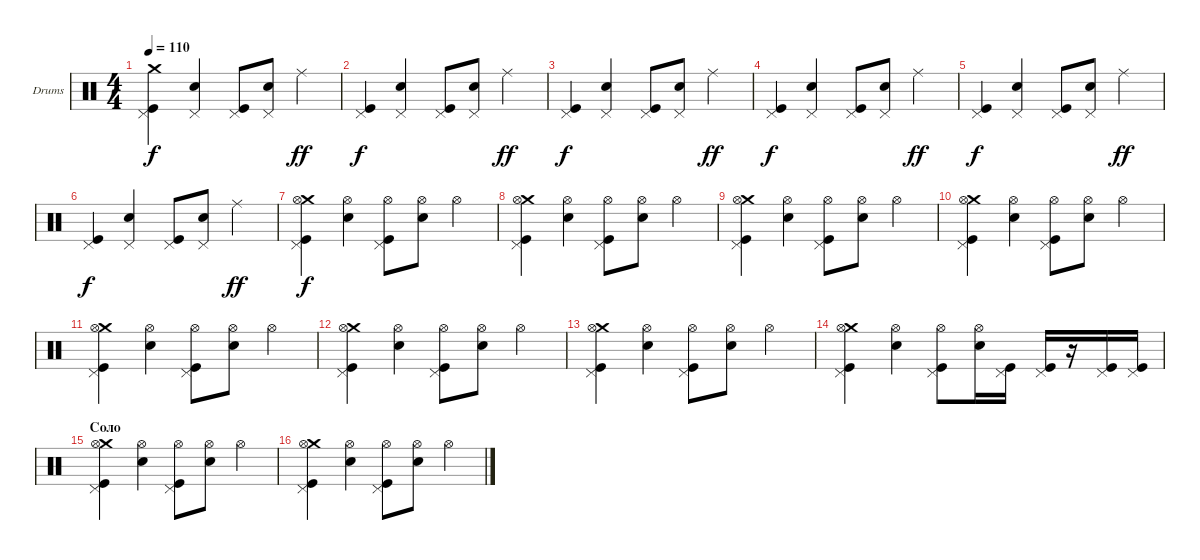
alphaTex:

\defaultSystemsLayout 4
\bracketExtendMode groupsimilarinstruments
\firstSystemTrackNameOrientation horizontal
\otherSystemsTrackNameOrientation horizontal
\track ("Е. Кулаков" "Drums") {instrument percussion}
\staff {score}
\articulation defaults
\ts (4 4)
\tempo 110
\clef neutral
\ks c
("Crash medium (hit)" "Pedal Hi-Hat (hit)" "Kick (hit)").4{dy f} ("Snare (hit) 2" "Pedal Hi-Hat (hit)").4 ("Pedal Hi-Hat (hit)" "Kick (hit)").8 ("Snare (hit) 2" "Pedal Hi-Hat (hit)").8 "Ride (middle)".4{dy ff} |
("Pedal Hi-Hat (hit)" "Kick (hit)").4{dy f} ("Snare (hit) 2" "Pedal Hi-Hat (hit)").4 ("Pedal Hi-Hat (hit)" "Kick (hit)").8 ("Snare (hit) 2" "Pedal Hi-Hat (hit)").8 "Ride (middle)".4{dy ff} |
("Pedal Hi-Hat (hit)" "Kick (hit)").4{dy f} ("Snare (hit) 2" "Pedal Hi-Hat (hit)").4 ("Pedal Hi-Hat (hit)" "Kick (hit)").8 ("Snare (hit) 2" "Pedal Hi-Hat (hit)").8 "Ride (middle)".4{dy ff} |
("Pedal Hi-Hat (hit)" "Kick (hit)").4{dy f} ("Snare (hit) 2" "Pedal Hi-Hat (hit)").4 ("Pedal Hi-Hat (hit)" "Kick (hit)").8 ("Snare (hit) 2" "Pedal Hi-Hat (hit)").8 "Ride (middle)".4{dy ff} |
("Pedal Hi-Hat (hit)" "Kick (hit)").4{dy f} ("Snare (hit) 2" "Pedal Hi-Hat (hit)").4 ("Pedal Hi-Hat (hit)" "Kick (hit)").8 ("Snare (hit) 2" "Pedal Hi-Hat (hit)").8 "Ride (middle)".4{dy ff} |
("Pedal Hi-Hat (hit)" "Kick (hit)").4{dy f} ("Snare (hit) 2" "Pedal Hi-Hat (hit)").4 ("Pedal Hi-Hat (hit)" "Kick (hit)").8 ("Snare (hit) 2" "Pedal Hi-Hat (hit)").8 "Ride (middle)".4{dy ff} |
("Crash medium (hit)" "Pedal Hi-Hat (hit)" "Kick (hit)" "Hi-Hat (open)").4{dy f} ("Snare (hit) 2" "Hi-Hat (open)").4 ("Pedal Hi-Hat (hit)" "Kick (hit)" "Hi-Hat (open)").8 ("Snare (hit) 2" "Hi-Hat (open)").8 "Hi-Hat (open)".4 |
("Crash medium (hit)" "Pedal Hi-Hat (hit)" "Kick (hit)" "Hi-Hat (open)").4 ("Snare (hit) 2" "Hi-Hat (open)").4 ("Pedal Hi-Hat (hit)" "Kick (hit)" "Hi-Hat (open)").8 ("Snare (hit) 2" "Hi-Hat (open)").8 "Hi-Hat (open)".4 |
("Crash medium (hit)" "Pedal Hi-Hat (hit)" "Kick (hit)" "Hi-Hat (open)").4 ("Snare (hit) 2" "Hi-Hat (open)").4 ("Pedal Hi-Hat (hit)" "Kick (hit)" "Hi-Hat (open)").8 ("Snare (hit) 2" "Hi-Hat (open)").8 "Hi-Hat (open)".4 |
("Crash medium (hit)" "Pedal Hi-Hat (hit)" "Kick (hit)" "Hi-Hat (open)").4 ("Snare (hit) 2" "Hi-Hat (open)").4 ("Pedal Hi-Hat (hit)" "Kick (hit)" "Hi-Hat (open)").8 ("Snare (hit) 2" "Hi-Hat (open)").8 "Hi-Hat (open)".4 |
("Crash medium (hit)" "Pedal Hi-Hat (hit)" "Kick (hit)" "Hi-Hat (open)").4 ("Snare (hit) 2" "Hi-Hat (open)").4 ("Pedal Hi-Hat (hit)" "Kick (hit)" "Hi-Hat (open)").8 ("Snare (hit) 2" "Hi-Hat (open)").8 "Hi-Hat (open)".4 |
("Crash medium (hit)" "Pedal Hi-Hat (hit)" "Kick (hit)" "Hi-Hat (open)").4 ("Snare (hit) 2" "Hi-Hat (open)").4 ("Pedal Hi-Hat (hit)" "Kick (hit)" "Hi-Hat (open)").8 ("Snare (hit) 2" "Hi-Hat (open)").8 "Hi-Hat (open)".4 |
("Crash medium (hit)" "Pedal Hi-Hat (hit)" "Kick (hit)" "Hi-Hat (open)").4 ("Snare (hit) 2" "Hi-Hat (open)").4 ("Pedal Hi-Hat (hit)" "Kick (hit)" "Hi-Hat (open)").8 ("Snare (hit) 2" "Hi-Hat (open)").8 "Hi-Hat (open)".4 |
("Crash medium (hit)" "Pedal Hi-Hat (hit)" "Kick (hit)" "Hi-Hat (open)").4 ("Snare (hit) 2" "Hi-Hat (open)").4 ("Pedal Hi-Hat (hit)" "Kick (hit)" "Hi-Hat (open)").8 ("Snare (hit) 2" "Hi-Hat (open)").16 ("Pedal Hi-Hat (hit)" "Kick (hit)").16 ("Pedal Hi-Hat (hit)" "Kick (hit)").16 r.16 ("Pedal Hi-Hat (hit)" "Kick (hit)").16 ("Pedal Hi-Hat (hit)" "Kick (hit)").16 |
\section ("" "Соло")
("Crash medium (hit)" "Pedal Hi-Hat (hit)" "Kick (hit)" "Hi-Hat (open)").4 ("Snare (hit) 2" "Hi-Hat (open)").4 ("Pedal Hi-Hat (hit)" "Kick (hit)" "Hi-Hat (open)").8 ("Snare (hit) 2" "Hi-Hat (open)").8 "Hi-Hat (open)".4 |
("Crash medium (hit)" "Pedal Hi-Hat (hit)" "Kick (hit)" "Hi-Hat (open)").4 ("Snare (hit) 2" "Hi-Hat (open)").4 ("Pedal Hi-Hat (hit)" "Kick (hit)" "Hi-Hat (open)").8 ("Snare (hit) 2" "Hi-Hat (open)").8 "Hi-Hat (open)".4
